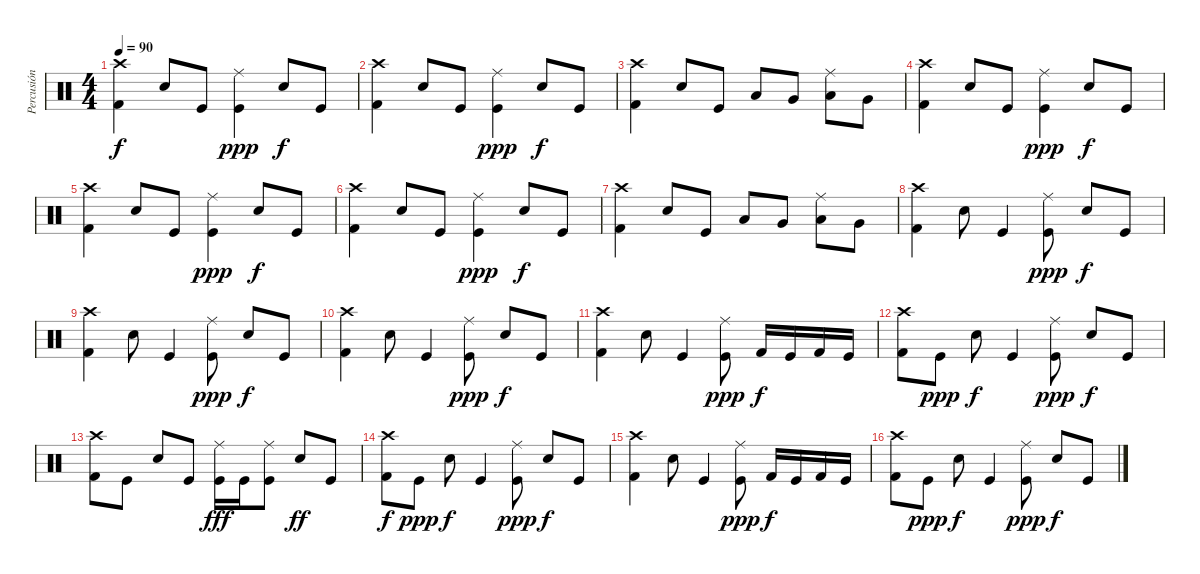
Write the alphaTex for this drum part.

\track ("Percusión" "Percusión") {instrument percussion}
\staff {score}
\articulation defaults
\ts (4 4)
\tempo 90
\clef neutral
\ks c
("Kick (hit) 2" "Crash high (hit)").4{dy f} "Snare (hit) 2".8 "Kick (hit)".8 ("Kick (hit)" "Ride (middle)").4{dy ppp} "Snare (hit) 2".8{dy f} "Kick (hit)".8 |
("Kick (hit) 2" "Crash high (hit)").4 "Snare (hit) 2".8 "Kick (hit)".8 ("Kick (hit)" "Ride (middle)").4{dy ppp} "Snare (hit) 2".8{dy f} "Kick (hit)".8 |
("Kick (hit) 2" "Crash high (hit)").4 "Snare (hit) 2".8 "Kick (hit)".8 "Low Tom (hit)".8 "Very Low Tom (hit)".8 ("Low Floor Tom (hit)" "Ride (middle)").8 "Very Low Tom (hit)".8 |
("Kick (hit) 2" "Crash high (hit)").4 "Snare (hit) 2".8 "Kick (hit)".8 ("Kick (hit)" "Ride (middle)").4{dy ppp} "Snare (hit) 2".8{dy f} "Kick (hit)".8 |
("Kick (hit) 2" "Crash high (hit)").4 "Snare (hit) 2".8 "Kick (hit)".8 ("Kick (hit)" "Ride (middle)").4{dy ppp} "Snare (hit) 2".8{dy f} "Kick (hit)".8 |
("Kick (hit) 2" "Crash high (hit)").4 "Snare (hit) 2".8 "Kick (hit)".8 ("Kick (hit)" "Ride (middle)").4{dy ppp} "Snare (hit) 2".8{dy f} "Kick (hit)".8 |
("Kick (hit) 2" "Crash high (hit)").4 "Snare (hit) 2".8 "Kick (hit)".8 "Low Tom (hit)".8 "Very Low Tom (hit)".8 ("Low Floor Tom (hit)" "Ride (middle)").8 "Very Low Tom (hit)".8 |
("Kick (hit) 2" "Crash high (hit)").4 "Snare (hit) 2".8 "Kick (hit)".4 ("Kick (hit)" "Ride (middle)").8{dy ppp} "Snare (hit) 2".8{dy f} "Kick (hit)".8 |
("Kick (hit) 2" "Crash high (hit)").4 "Snare (hit) 2".8 "Kick (hit)".4 ("Kick (hit)" "Ride (middle)").8{dy ppp} "Snare (hit) 2".8{dy f} "Kick (hit)".8 |
("Kick (hit) 2" "Crash high (hit)").4 "Snare (hit) 2".8 "Kick (hit)".4 ("Kick (hit)" "Ride (middle)").8{dy ppp} "Snare (hit) 2".8{dy f} "Kick (hit)".8 |
("Kick (hit) 2" "Crash high (hit)").4 "Snare (hit) 2".8 "Kick (hit)".4 ("Kick (hit)" "Ride (middle)").8{dy ppp} "Kick (hit) 2".16{dy f} "Kick (hit)".16 "Kick (hit) 2".16 "Kick (hit)".16 |
("Kick (hit) 2" "Crash high (hit)").8 "Kick (hit)".8{dy ppp} "Snare (hit) 2".8{dy f} "Kick (hit)".4 ("Kick (hit)" "Ride (middle)").8{dy ppp} "Snare (hit) 2".8{dy f} "Kick (hit)".8 |
("Kick (hit) 2" "Crash high (hit)").8 "Kick (hit)".8 "Snare (hit) 2".8 "Kick (hit)".8 ("Kick (hit)" "Ride (middle)").16{dy fff} "Kick (hit)".16 ("Kick (hit)" "Ride (middle)").8 "Snare (hit) 2".8{dy ff} "Kick (hit)".8 |
("Kick (hit) 2" "Crash high (hit)").8{dy f} "Kick (hit)".8{dy ppp} "Snare (hit) 2".8{dy f} "Kick (hit)".4 ("Kick (hit)" "Ride (middle)").8{dy ppp} "Snare (hit) 2".8{dy f} "Kick (hit)".8 |
("Kick (hit) 2" "Crash high (hit)").4 "Snare (hit) 2".8 "Kick (hit)".4 ("Kick (hit)" "Ride (middle)").8{dy ppp} "Kick (hit) 2".16{dy f} "Kick (hit)".16 "Kick (hit) 2".16 "Kick (hit)".16 |
("Kick (hit) 2" "Crash high (hit)").8 "Kick (hit)".8{dy ppp} "Snare (hit) 2".8{dy f} "Kick (hit)".4 ("Kick (hit)" "Ride (middle)").8{dy ppp} "Snare (hit) 2".8{dy f} "Kick (hit)".8
